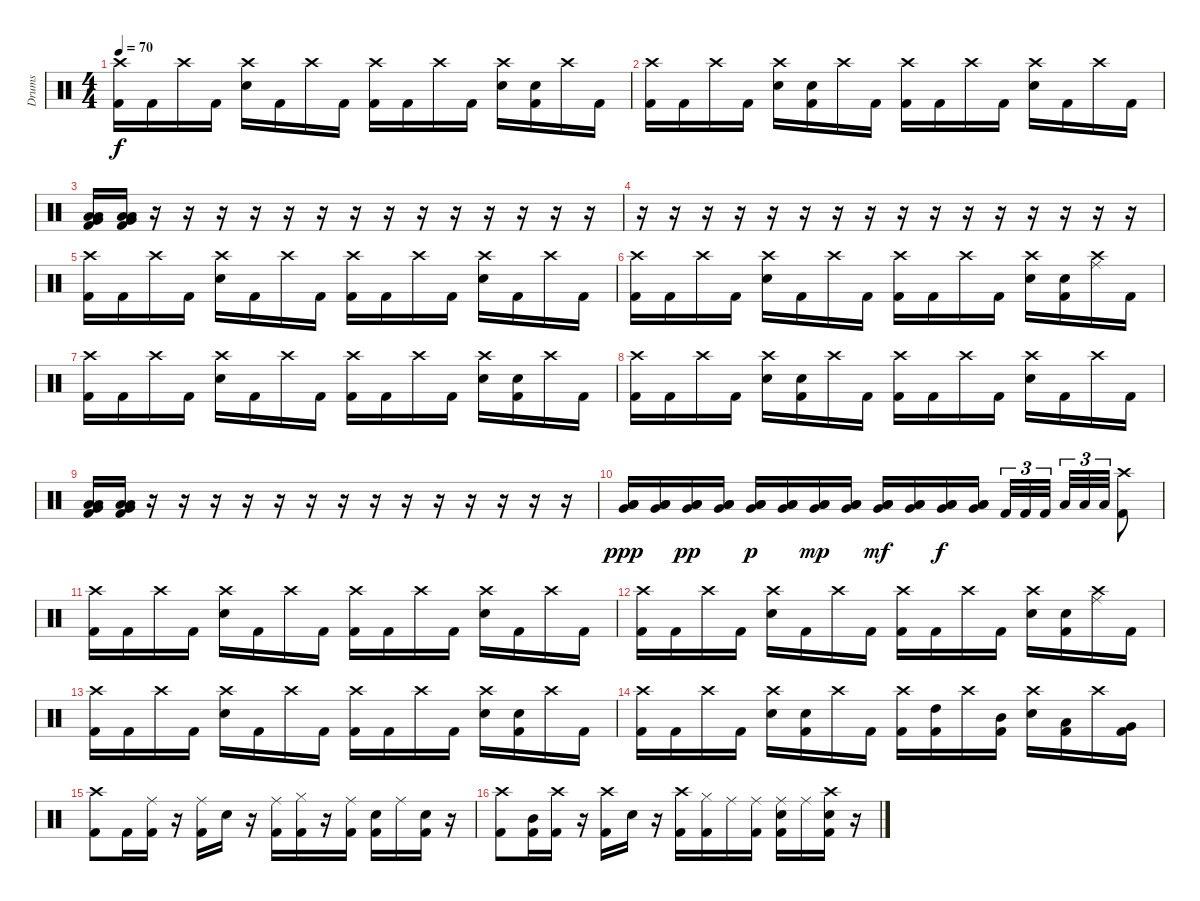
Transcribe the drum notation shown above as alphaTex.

\track ("Drums" "Drums") {instrument percussion}
\staff {score}
\articulation defaults
\ts (4 4)
\tempo 70
\clef neutral
\ks c
("Crash high (hit)" "Kick (hit) 2").16{dy f} "Kick (hit) 2".16 "Crash high (hit)".16 "Kick (hit) 2".16 ("Crash high (hit)" "Snare (hit) 2").16 "Kick (hit) 2".16 "Crash high (hit)".16 "Kick (hit) 2".16 ("Crash high (hit)" "Kick (hit) 2").16 "Kick (hit) 2".16 "Crash high (hit)".16 "Kick (hit) 2".16 ("Crash high (hit)" "Snare (hit) 2").16 ("Snare (hit) 2" "Kick (hit) 2").16 "Crash high (hit)".16 "Kick (hit) 2".16 |
("Crash high (hit)" "Kick (hit) 2").16 "Kick (hit) 2".16 "Crash high (hit)".16 "Kick (hit) 2".16 ("Crash high (hit)" "Snare (hit) 2").16 ("Snare (hit) 2" "Kick (hit) 2").16 "Crash high (hit)".16 "Kick (hit) 2".16 ("Crash high (hit)" "Kick (hit) 2").16 "Kick (hit) 2".16 "Crash high (hit)".16 "Kick (hit) 2".16 ("Crash high (hit)" "Snare (hit) 2").16 "Kick (hit) 2".16 "Crash high (hit)".16 "Kick (hit) 2".16 |
("Very Low Tom (hit)" "Low Floor Tom (hit)" "Low Floor Tom (hit)" "Kick (hit) 2").16 ("Very Low Tom (hit)" "Low Floor Tom (hit)" "Low Floor Tom (hit)" "Kick (hit) 2").16 r.16 r.16 r.16 r.16 r.16 r.16 r.16 r.16 r.16 r.16 r.16 r.16 r.16 r.16 |
r.16 r.16 r.16 r.16 r.16 r.16 r.16 r.16 r.16 r.16 r.16 r.16 r.16 r.16 r.16 r.16 |
("Crash high (hit)" "Kick (hit) 2").16 "Kick (hit) 2".16 "Crash high (hit)".16 "Kick (hit) 2".16 ("Crash high (hit)" "Snare (hit) 2").16 "Kick (hit) 2".16 "Crash high (hit)".16 "Kick (hit) 2".16 ("Crash high (hit)" "Kick (hit) 2").16 "Kick (hit) 2".16 "Crash high (hit)".16 "Kick (hit) 2".16 ("Crash high (hit)" "Snare (hit) 2").16 "Kick (hit) 2".16 "Crash high (hit)".16 "Kick (hit) 2".16 |
("Crash high (hit)" "Kick (hit) 2").16 "Kick (hit) 2".16 "Crash high (hit)".16 "Kick (hit) 2".16 ("Crash high (hit)" "Snare (hit) 2").16 "Kick (hit) 2".16 "Crash high (hit)".16 "Kick (hit) 2".16 ("Crash high (hit)" "Kick (hit) 2").16 "Kick (hit) 2".16 "Crash high (hit)".16 "Kick (hit) 2".16 ("Crash high (hit)" "Snare (hit) 2").16 ("Snare (hit) 2" "Kick (hit) 2").16 ("Crash high (hit)" "Ride (middle)").16 "Kick (hit) 2".16 |
("Crash high (hit)" "Kick (hit) 2").16 "Kick (hit) 2".16 "Crash high (hit)".16 "Kick (hit) 2".16 ("Crash high (hit)" "Snare (hit) 2").16 "Kick (hit) 2".16 "Crash high (hit)".16 "Kick (hit) 2".16 ("Crash high (hit)" "Kick (hit) 2").16 "Kick (hit) 2".16 "Crash high (hit)".16 "Kick (hit) 2".16 ("Crash high (hit)" "Snare (hit) 2").16 ("Snare (hit) 2" "Kick (hit) 2").16 "Crash high (hit)".16 "Kick (hit) 2".16 |
("Crash high (hit)" "Kick (hit) 2").16 "Kick (hit) 2".16 "Crash high (hit)".16 "Kick (hit) 2".16 ("Crash high (hit)" "Snare (hit) 2").16 ("Snare (hit) 2" "Kick (hit) 2").16 "Crash high (hit)".16 "Kick (hit) 2".16 ("Crash high (hit)" "Kick (hit) 2").16 "Kick (hit) 2".16 "Crash high (hit)".16 "Kick (hit) 2".16 ("Crash high (hit)" "Snare (hit) 2").16 "Kick (hit) 2".16 "Crash high (hit)".16 "Kick (hit) 2".16 |
("Very Low Tom (hit)" "Low Floor Tom (hit)" "Low Floor Tom (hit)" "Kick (hit) 2").16 ("Very Low Tom (hit)" "Low Floor Tom (hit)" "Low Floor Tom (hit)" "Kick (hit) 2").16 r.16 r.16 r.16 r.16 r.16 r.16 r.16 r.16 r.16 r.16 r.16 r.16 r.16 r.16 |
("Very Low Tom (hit)" "Low Floor Tom (hit)" "Low Floor Tom (hit)").16{dy ppp} ("Very Low Tom (hit)" "Low Floor Tom (hit)" "Low Floor Tom (hit)").16 ("Very Low Tom (hit)" "Low Floor Tom (hit)" "Low Floor Tom (hit)").16{dy pp} ("Very Low Tom (hit)" "Low Floor Tom (hit)" "Low Floor Tom (hit)").16 ("Very Low Tom (hit)" "Low Floor Tom (hit)" "Low Floor Tom (hit)").16{dy p} ("Very Low Tom (hit)" "Low Floor Tom (hit)" "Low Floor Tom (hit)").16 ("Very Low Tom (hit)" "Low Floor Tom (hit)" "Low Floor Tom (hit)").16{dy mp} ("Very Low Tom (hit)" "Low Floor Tom (hit)" "Low Floor Tom (hit)").16 ("Very Low Tom (hit)" "Low Floor Tom (hit)" "Low Floor Tom (hit)").16{dy mf} ("Very Low Tom (hit)" "Low Floor Tom (hit)" "Low Floor Tom (hit)").16 ("Very Low Tom (hit)" "Low Floor Tom (hit)" "Low Floor Tom (hit)").16{dy f} ("Very Low Tom (hit)" "Low Floor Tom (hit)" "Low Floor Tom (hit)").16 "Kick (hit) 2".32{tu (3 2)} "Kick (hit) 2".32{tu (3 2)} "Kick (hit) 2".32{tu (3 2)} "Low Floor Tom (hit)".32{tu (3 2)} "Low Floor Tom (hit)".32{tu (3 2)} "Low Floor Tom (hit)".32{tu (3 2)} ("Crash high (hit)" "Kick (hit) 2").8 |
("Crash high (hit)" "Kick (hit) 2").16 "Kick (hit) 2".16 "Crash high (hit)".16 "Kick (hit) 2".16 ("Crash high (hit)" "Snare (hit) 2").16 "Kick (hit) 2".16 "Crash high (hit)".16 "Kick (hit) 2".16 ("Crash high (hit)" "Kick (hit) 2").16 "Kick (hit) 2".16 "Crash high (hit)".16 "Kick (hit) 2".16 ("Crash high (hit)" "Snare (hit) 2").16 "Kick (hit) 2".16 "Crash high (hit)".16 "Kick (hit) 2".16 |
("Crash high (hit)" "Kick (hit) 2").16 "Kick (hit) 2".16 "Crash high (hit)".16 "Kick (hit) 2".16 ("Crash high (hit)" "Snare (hit) 2").16 "Kick (hit) 2".16 "Crash high (hit)".16 "Kick (hit) 2".16 ("Crash high (hit)" "Kick (hit) 2").16 "Kick (hit) 2".16 "Crash high (hit)".16 "Kick (hit) 2".16 ("Crash high (hit)" "Snare (hit) 2").16 ("Snare (hit) 2" "Kick (hit) 2").16 ("Crash high (hit)" "Ride (middle)").16 "Kick (hit) 2".16 |
("Crash high (hit)" "Kick (hit) 2").16 "Kick (hit) 2".16 "Crash high (hit)".16 "Kick (hit) 2".16 ("Crash high (hit)" "Snare (hit) 2").16 "Kick (hit) 2".16 "Crash high (hit)".16 "Kick (hit) 2".16 ("Crash high (hit)" "Kick (hit) 2").16 "Kick (hit) 2".16 "Crash high (hit)".16 "Kick (hit) 2".16 ("Crash high (hit)" "Snare (hit) 2").16 ("Snare (hit) 2" "Kick (hit) 2").16 "Crash high (hit)".16 "Kick (hit) 2".16 |
("Crash high (hit)" "Kick (hit) 2").16 "Kick (hit) 2".16 "Crash high (hit)".16 "Kick (hit) 2".16 ("Crash high (hit)" "Snare (hit) 2").16 ("Snare (hit) 2" "Kick (hit) 2").16 "Crash high (hit)".16 "Kick (hit) 2".16 ("Crash high (hit)" "Kick (hit) 2").16 ("High Tom (hit)" "Kick (hit) 2").16 "Crash high (hit)".16 ("Mid Tom (hit)" "Kick (hit) 2").16 ("Crash high (hit)" "Snare (hit) 2").16 ("Low Tom (hit)" "Kick (hit) 2").16 "Crash high (hit)".16 ("Very Low Tom (hit)" "Kick (hit) 2").16 |
("Crash high (hit)" "Kick (hit) 2").8 "Kick (hit) 2".16 ("Ride (middle)" "Kick (hit) 2").16 r.16 ("Ride (middle)" "Kick (hit) 2").16 "Snare (hit) 2".16 r.16 ("Ride (middle)" "Kick (hit) 2").16 ("Hi-Hat (closed)" "Kick (hit) 2").16 r.16 ("Ride (middle)" "Kick (hit) 2").16 ("Snare (hit) 2" "Kick (hit) 2").16 "Ride (middle)".16 ("Snare (hit) 2" "Kick (hit) 2").16 r.16 |
("Crash high (hit)" "Kick (hit) 2").8 ("Mid Tom (hit)" "Kick (hit) 2").16 ("Crash high (hit)" "Kick (hit) 2").16 r.16 ("Crash high (hit)" "Kick (hit) 2").16 "Snare (hit) 2".16 r.16 ("Crash high (hit)" "Kick (hit) 2").16 ("Hi-Hat (closed)" "Kick (hit) 2").16 "Ride (middle)".16 ("Ride (middle)" "Kick (hit) 2").16 ("Ride (middle)" "Snare (hit) 2" "Kick (hit) 2").16 "Ride (middle)".16 ("Crash high (hit)" "Snare (hit) 2" "Kick (hit) 2").16 r.16
